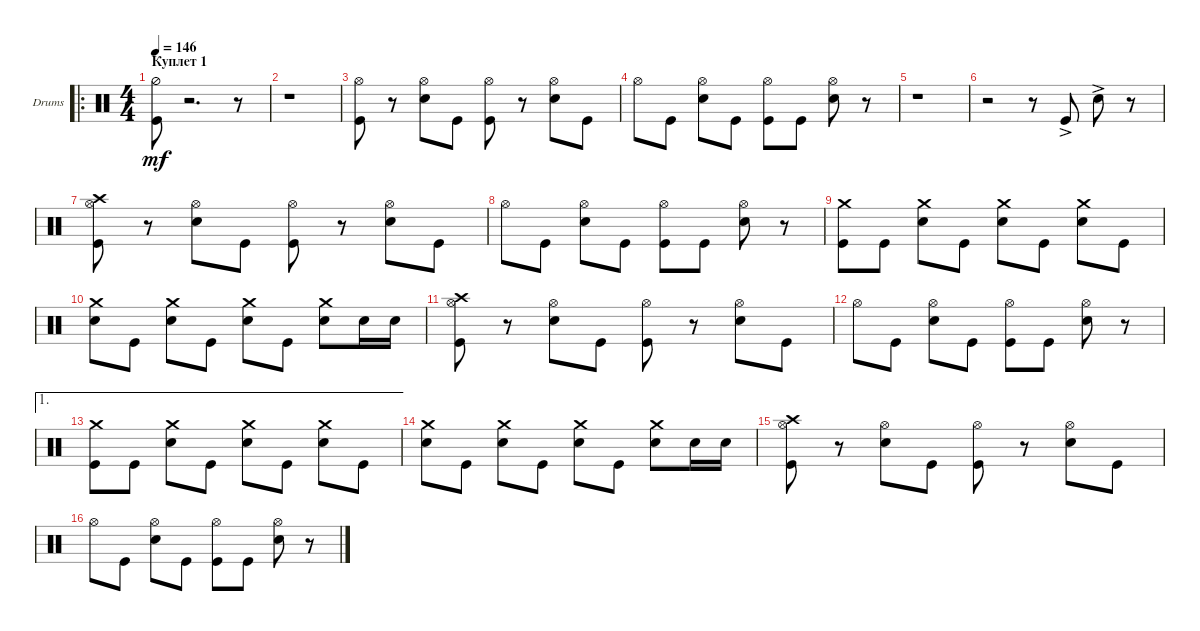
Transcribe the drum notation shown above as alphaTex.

\defaultSystemsLayout 4
\bracketExtendMode groupsimilarinstruments
\firstSystemTrackNameOrientation horizontal
\otherSystemsTrackNameOrientation horizontal
\track ("Drumkit" "Drums") {instrument percussion}
\staff {score}
\articulation defaults
\ro
\ts (4 4)
\section ("" "Куплет 1")
\tempo 146
\clef neutral
\ks c
("Kick (hit)" "Hi-Hat (half)").8{dy mf} r.2{d} r.8 |
r.1 |
("Kick (hit)" "Hi-Hat (open)").8 r.8 ("Snare (hit) 2" "Hi-Hat (open)").8 "Kick (hit)".8 ("Kick (hit)" "Hi-Hat (open)").8 r.8 ("Snare (hit) 2" "Hi-Hat (open)").8 "Kick (hit)".8 |
"Hi-Hat (open)".8 "Kick (hit)".8 ("Snare (hit) 2" "Hi-Hat (open)").8 "Kick (hit)".8 ("Hi-Hat (open)" "Kick (hit)").8 "Kick (hit)".8 ("Snare (hit) 2" "Hi-Hat (open)").8 r.8 |
r.1 |
r.2 r.8 "Kick (hit)"{ac}.8 "Snare (hit) 2"{ac}.8 r.8 |
("Kick (hit)" "Hi-Hat (open)" "Crash high (hit)").8 r.8 ("Snare (hit) 2" "Hi-Hat (open)").8 "Kick (hit)".8 ("Kick (hit)" "Hi-Hat (open)").8 r.8 ("Snare (hit) 2" "Hi-Hat (open)").8 "Kick (hit)".8 |
"Hi-Hat (open)".8 "Kick (hit)".8 ("Snare (hit) 2" "Hi-Hat (open)").8 "Kick (hit)".8 ("Hi-Hat (open)" "Kick (hit)").8 "Kick (hit)".8 ("Snare (hit) 2" "Hi-Hat (open)").8 r.8 |
("Kick (hit)" "Crash medium (hit)").8 "Kick (hit)".8 ("Snare (hit) 2" "Crash medium (hit)").8 "Kick (hit)".8 ("Snare (hit) 2" "Crash medium (hit)").8 "Kick (hit)".8 ("Snare (hit) 2" "Crash medium (hit)").8 "Kick (hit)".8 |
("Snare (hit) 2" "Crash medium (hit)").8 "Kick (hit)".8 ("Snare (hit) 2" "Crash medium (hit)").8 "Kick (hit)".8 ("Snare (hit) 2" "Crash medium (hit)").8 "Kick (hit)".8 ("Snare (hit) 2" "Crash medium (hit)").8 "Snare (hit) 2".16 "Snare (hit) 2".16 |
("Kick (hit)" "Hi-Hat (open)" "Crash high (hit)").8 r.8 ("Snare (hit) 2" "Hi-Hat (open)").8 "Kick (hit)".8 ("Kick (hit)" "Hi-Hat (open)").8 r.8 ("Snare (hit) 2" "Hi-Hat (open)").8 "Kick (hit)".8 |
"Hi-Hat (open)".8 "Kick (hit)".8 ("Snare (hit) 2" "Hi-Hat (open)").8 "Kick (hit)".8 ("Hi-Hat (open)" "Kick (hit)").8 "Kick (hit)".8 ("Snare (hit) 2" "Hi-Hat (open)").8 r.8 |
\ae 1
("Kick (hit)" "Crash medium (hit)").8 "Kick (hit)".8 ("Snare (hit) 2" "Crash medium (hit)").8 "Kick (hit)".8 ("Snare (hit) 2" "Crash medium (hit)").8 "Kick (hit)".8 ("Snare (hit) 2" "Crash medium (hit)").8 "Kick (hit)".8 |
("Snare (hit) 2" "Crash medium (hit)").8 "Kick (hit)".8 ("Snare (hit) 2" "Crash medium (hit)").8 "Kick (hit)".8 ("Snare (hit) 2" "Crash medium (hit)").8 "Kick (hit)".8 ("Snare (hit) 2" "Crash medium (hit)").8 "Snare (hit) 2".16 "Snare (hit) 2".16 |
("Kick (hit)" "Hi-Hat (open)" "Crash high (hit)").8 r.8 ("Snare (hit) 2" "Hi-Hat (open)").8 "Kick (hit)".8 ("Kick (hit)" "Hi-Hat (open)").8 r.8 ("Snare (hit) 2" "Hi-Hat (open)").8 "Kick (hit)".8 |
"Hi-Hat (open)".8 "Kick (hit)".8 ("Snare (hit) 2" "Hi-Hat (open)").8 "Kick (hit)".8 ("Hi-Hat (open)" "Kick (hit)").8 "Kick (hit)".8 ("Snare (hit) 2" "Hi-Hat (open)").8 r.8
